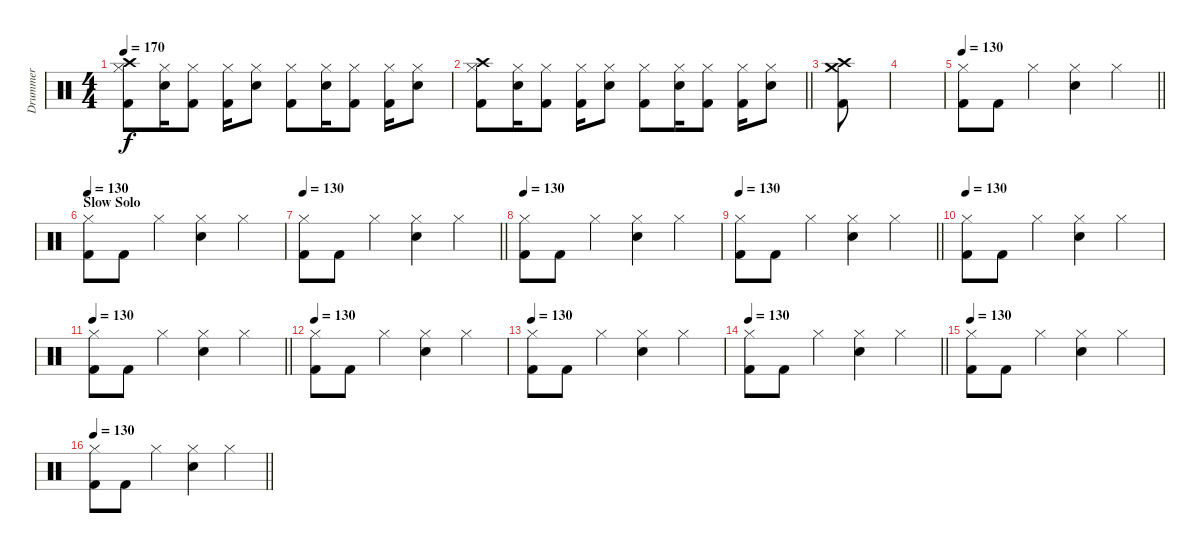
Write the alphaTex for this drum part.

\track ("Drummer" "Drummer") {instrument percussion}
\staff {score}
\articulation defaults
\ts (4 4)
\tempo 170
\clef neutral
\ks c
("Kick (hit) 2" "Hi-Hat (closed)" "Crash high (hit)").8{dy f} ("Electric Snare (hit)" "Hi-Hat (closed)").16 ("Kick (hit) 2" "Hi-Hat (closed)").8 ("Kick (hit) 2" "Hi-Hat (closed)").16 ("Electric Snare (hit)" "Hi-Hat (closed)").8 ("Kick (hit) 2" "Hi-Hat (closed)").8 ("Electric Snare (hit)" "Hi-Hat (closed)").16 ("Kick (hit) 2" "Hi-Hat (closed)").8 ("Kick (hit) 2" "Hi-Hat (closed)").16 ("Electric Snare (hit)" "Hi-Hat (closed)").8 |
\barLineRight lightlight
("Kick (hit) 2" "Hi-Hat (closed)" "Crash high (hit)").8 ("Electric Snare (hit)" "Hi-Hat (closed)").16 ("Kick (hit) 2" "Hi-Hat (closed)").8 ("Kick (hit) 2" "Hi-Hat (closed)").16 ("Electric Snare (hit)" "Hi-Hat (closed)").8 ("Kick (hit) 2" "Hi-Hat (closed)").8 ("Electric Snare (hit)" "Hi-Hat (closed)").16 ("Kick (hit) 2" "Hi-Hat (closed)").8 ("Kick (hit) 2" "Hi-Hat (closed)").16 ("Electric Snare (hit)" "Hi-Hat (closed)").8 |
("Crash high (hit)" "Kick (hit) 2" "Crash medium (hit)").8 |
|
\tempo 130
\barLineRight lightlight
("Kick (hit) 2" "Hi-Hat (closed)").8 "Kick (hit) 2".8 "Hi-Hat (closed)".4 ("Electric Snare (hit)" "Hi-Hat (closed)").4 "Hi-Hat (closed)".4 |
\section ("" "Slow Solo")
\tempo 130
("Kick (hit) 2" "Hi-Hat (closed)").8 "Kick (hit) 2".8 "Hi-Hat (closed)".4 ("Electric Snare (hit)" "Hi-Hat (closed)").4 "Hi-Hat (closed)".4 |
\tempo 130
\barLineRight lightlight
("Kick (hit) 2" "Hi-Hat (closed)").8 "Kick (hit) 2".8 "Hi-Hat (closed)".4 ("Electric Snare (hit)" "Hi-Hat (closed)").4 "Hi-Hat (closed)".4 |
\tempo 130
("Kick (hit) 2" "Hi-Hat (closed)").8 "Kick (hit) 2".8 "Hi-Hat (closed)".4 ("Electric Snare (hit)" "Hi-Hat (closed)").4 "Hi-Hat (closed)".4 |
\tempo 130
\barLineRight lightlight
("Kick (hit) 2" "Hi-Hat (closed)").8 "Kick (hit) 2".8 "Hi-Hat (closed)".4 ("Electric Snare (hit)" "Hi-Hat (closed)").4 "Hi-Hat (closed)".4 |
\tempo 130
("Kick (hit) 2" "Hi-Hat (closed)").8 "Kick (hit) 2".8 "Hi-Hat (closed)".4 ("Electric Snare (hit)" "Hi-Hat (closed)").4 "Hi-Hat (closed)".4 |
\tempo 130
\barLineRight lightlight
("Kick (hit) 2" "Hi-Hat (closed)").8 "Kick (hit) 2".8 "Hi-Hat (closed)".4 ("Electric Snare (hit)" "Hi-Hat (closed)").4 "Hi-Hat (closed)".4 |
\tempo 130
("Kick (hit) 2" "Hi-Hat (closed)").8 "Kick (hit) 2".8 "Hi-Hat (closed)".4 ("Electric Snare (hit)" "Hi-Hat (closed)").4 "Hi-Hat (closed)".4 |
\tempo 130
("Kick (hit) 2" "Hi-Hat (closed)").8 "Kick (hit) 2".8 "Hi-Hat (closed)".4 ("Electric Snare (hit)" "Hi-Hat (closed)").4 "Hi-Hat (closed)".4 |
\tempo 130
\barLineRight lightlight
("Kick (hit) 2" "Hi-Hat (closed)").8 "Kick (hit) 2".8 "Hi-Hat (closed)".4 ("Electric Snare (hit)" "Hi-Hat (closed)").4 "Hi-Hat (closed)".4 |
\tempo 130
("Kick (hit) 2" "Hi-Hat (closed)").8 "Kick (hit) 2".8 "Hi-Hat (closed)".4 ("Electric Snare (hit)" "Hi-Hat (closed)").4 "Hi-Hat (closed)".4 |
\tempo 130
\barLineRight lightlight
("Kick (hit) 2" "Hi-Hat (closed)").8 "Kick (hit) 2".8 "Hi-Hat (closed)".4 ("Electric Snare (hit)" "Hi-Hat (closed)").4 "Hi-Hat (closed)".4
